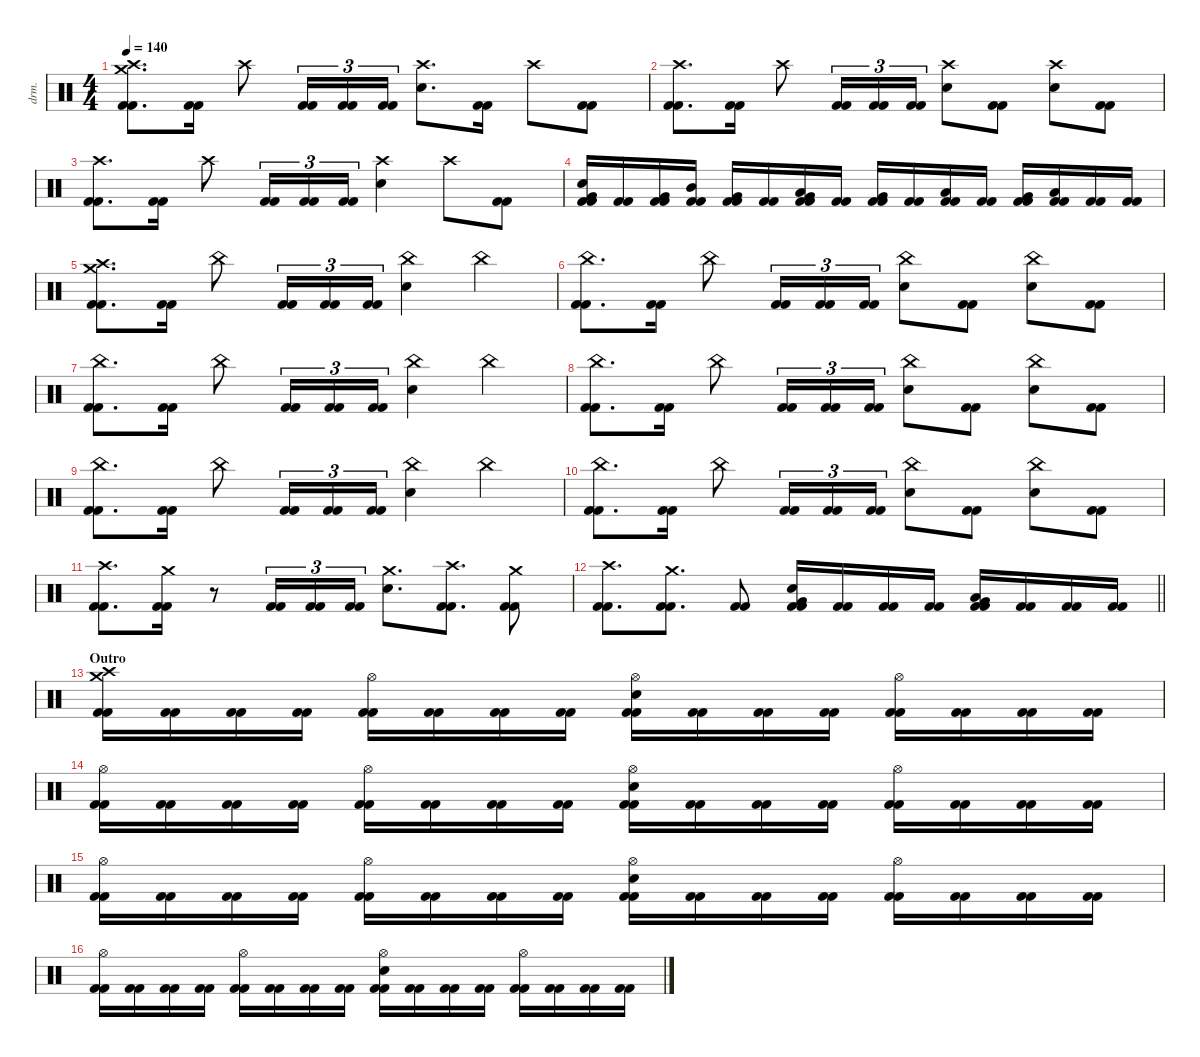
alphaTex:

\defaultSystemsLayout 4
\hideDynamics
\bracketExtendMode nobrackets
\otherSystemsTrackNameOrientation horizontal
\track ("Chris Adler" "drm.") {instrument percussion}
\staff {score}
\articulation defaults
\ts (4 4)
\tempo 140
\clef neutral
\ks c
("Crash medium (hit)" "Crash high (hit)" "Kick (hit) 2" "Kick (hit) 2").8{d dy f} ("Kick (hit) 2" "Kick (hit) 2").16 "Crash high (hit)".8 ("Kick (hit) 2" "Kick (hit) 2").16{tu (3 2)} ("Kick (hit) 2" "Kick (hit) 2").16{tu (3 2)} ("Kick (hit) 2" "Kick (hit) 2").16{tu (3 2)} ("Crash high (hit)" "Snare (hit) 2").8{d} ("Kick (hit) 2" "Kick (hit) 2").16 "Crash high (hit)".8 ("Kick (hit) 2" "Kick (hit) 2").8 |
("Crash high (hit)" "Kick (hit) 2" "Kick (hit) 2").8{d} ("Kick (hit) 2" "Kick (hit) 2").16 "Crash high (hit)".8 ("Kick (hit) 2" "Kick (hit) 2").16{tu (3 2)} ("Kick (hit) 2" "Kick (hit) 2").16{tu (3 2)} ("Kick (hit) 2" "Kick (hit) 2").16{tu (3 2)} ("Crash high (hit)" "Snare (hit) 2").8 ("Kick (hit) 2" "Kick (hit) 2").8 ("Crash high (hit)" "Snare (hit) 2").8 ("Kick (hit) 2" "Kick (hit) 2").8 |
("Crash high (hit)" "Kick (hit) 2" "Kick (hit) 2").8{d} ("Kick (hit) 2" "Kick (hit) 2").16 "Crash high (hit)".8 ("Kick (hit) 2" "Kick (hit) 2").16{tu (3 2)} ("Kick (hit) 2" "Kick (hit) 2").16{tu (3 2)} ("Kick (hit) 2" "Kick (hit) 2").16{tu (3 2)} ("Crash high (hit)" "Snare (hit) 2").4 "Crash high (hit)".8 ("Kick (hit) 2" "Kick (hit) 2").8 |
("Very Low Tom (hit)" "Snare (hit) 2" "Kick (hit) 2" "Kick (hit) 2").16 ("Kick (hit) 2" "Kick (hit) 2").16 ("Very Low Tom (hit)" "Kick (hit) 2" "Kick (hit) 2").16 ("Mid Tom (hit)" "Kick (hit) 2" "Kick (hit) 2").16 ("Very Low Tom (hit)" "Kick (hit) 2" "Kick (hit) 2").16 ("Kick (hit) 2" "Kick (hit) 2").16 ("Low Tom (hit)" "Very Low Tom (hit)" "Kick (hit) 2" "Kick (hit) 2").16 ("Kick (hit) 2" "Kick (hit) 2").16 ("Very Low Tom (hit)" "Kick (hit) 2" "Kick (hit) 2").16 ("Kick (hit) 2" "Kick (hit) 2").16 ("Low Floor Tom (hit)" "Kick (hit) 2" "Kick (hit) 2").16 ("Kick (hit) 2" "Kick (hit) 2").16 ("Very Low Tom (hit)" "Kick (hit) 2" "Kick (hit) 2").16 ("Low Floor Tom (hit)" "Kick (hit) 2" "Kick (hit) 2").16 ("Kick (hit) 2" "Kick (hit) 2").16 ("Kick (hit) 2" "Kick (hit) 2").16 |
("Crash medium (hit)" "Crash high (hit)" "Kick (hit) 2" "Kick (hit) 2").8{d} ("Kick (hit) 2" "Kick (hit) 2").16 "China (hit)".8 ("Kick (hit) 2" "Kick (hit) 2").16{tu (3 2)} ("Kick (hit) 2" "Kick (hit) 2").16{tu (3 2)} ("Kick (hit) 2" "Kick (hit) 2").16{tu (3 2)} ("China (hit)" "Snare (hit) 2").4 "China (hit)".4 |
("China (hit)" "Kick (hit) 2" "Kick (hit) 2").8{d} ("Kick (hit) 2" "Kick (hit) 2").16 "China (hit)".8 ("Kick (hit) 2" "Kick (hit) 2").16{tu (3 2)} ("Kick (hit) 2" "Kick (hit) 2").16{tu (3 2)} ("Kick (hit) 2" "Kick (hit) 2").16{tu (3 2)} ("China (hit)" "Snare (hit) 2").8 ("Kick (hit) 2" "Kick (hit) 2").8 ("China (hit)" "Snare (hit) 2").8 ("Kick (hit) 2" "Kick (hit) 2").8 |
("China (hit)" "Kick (hit) 2" "Kick (hit) 2").8{d} ("Kick (hit) 2" "Kick (hit) 2").16 "China (hit)".8 ("Kick (hit) 2" "Kick (hit) 2").16{tu (3 2)} ("Kick (hit) 2" "Kick (hit) 2").16{tu (3 2)} ("Kick (hit) 2" "Kick (hit) 2").16{tu (3 2)} ("China (hit)" "Snare (hit) 2").4 "China (hit)".4 |
("China (hit)" "Kick (hit) 2" "Kick (hit) 2").8{d} ("Kick (hit) 2" "Kick (hit) 2").16 "China (hit)".8 ("Kick (hit) 2" "Kick (hit) 2").16{tu (3 2)} ("Kick (hit) 2" "Kick (hit) 2").16{tu (3 2)} ("Kick (hit) 2" "Kick (hit) 2").16{tu (3 2)} ("China (hit)" "Snare (hit) 2").8 ("Kick (hit) 2" "Kick (hit) 2").8 ("China (hit)" "Snare (hit) 2").8 ("Kick (hit) 2" "Kick (hit) 2").8 |
("China (hit)" "Kick (hit) 2" "Kick (hit) 2").8{d} ("Kick (hit) 2" "Kick (hit) 2").16 "China (hit)".8 ("Kick (hit) 2" "Kick (hit) 2").16{tu (3 2)} ("Kick (hit) 2" "Kick (hit) 2").16{tu (3 2)} ("Kick (hit) 2" "Kick (hit) 2").16{tu (3 2)} ("China (hit)" "Snare (hit) 2").4 "China (hit)".4 |
("China (hit)" "Kick (hit) 2" "Kick (hit) 2").8{d} ("Kick (hit) 2" "Kick (hit) 2").16 "China (hit)".8 ("Kick (hit) 2" "Kick (hit) 2").16{tu (3 2)} ("Kick (hit) 2" "Kick (hit) 2").16{tu (3 2)} ("Kick (hit) 2" "Kick (hit) 2").16{tu (3 2)} ("China (hit)" "Snare (hit) 2").8 ("Kick (hit) 2" "Kick (hit) 2").8 ("China (hit)" "Snare (hit) 2").8 ("Kick (hit) 2" "Kick (hit) 2").8 |
("Crash high (hit)" "Kick (hit) 2" "Kick (hit) 2").8{d} ("Crash medium (hit)" "Kick (hit) 2" "Kick (hit) 2").16 r.8 ("Kick (hit) 2" "Kick (hit) 2").16{tu (3 2)} ("Kick (hit) 2" "Kick (hit) 2").16{tu (3 2)} ("Kick (hit) 2" "Kick (hit) 2").16{tu (3 2)} ("Crash medium (hit)" "Snare (hit) 2").8{d} ("Crash high (hit)" "Kick (hit) 2" "Kick (hit) 2").8{d} ("Crash medium (hit)" "Kick (hit) 2" "Kick (hit) 2").8 |
\barLineRight lightlight
("Crash high (hit)" "Kick (hit) 2" "Kick (hit) 2").8{d} ("Crash medium (hit)" "Kick (hit) 2" "Kick (hit) 2").8{d} ("Kick (hit) 2" "Kick (hit) 2").8 ("Very Low Tom (hit)" "Snare (hit) 2" "Kick (hit) 2" "Kick (hit) 2").16 ("Kick (hit) 2" "Kick (hit) 2").16 ("Kick (hit) 2" "Kick (hit) 2").16 ("Kick (hit) 2" "Kick (hit) 2").16 ("Low Tom (hit)" "Very Low Tom (hit)" "Kick (hit) 2" "Kick (hit) 2").16 ("Kick (hit) 2" "Kick (hit) 2").16 ("Kick (hit) 2" "Kick (hit) 2").16 ("Kick (hit) 2" "Kick (hit) 2").16 |
\section ("" "Outro")
("Crash medium (hit)" "Crash high (hit)" "Kick (hit) 2" "Kick (hit) 2").16 ("Kick (hit) 2" "Kick (hit) 2").16 ("Kick (hit) 2" "Kick (hit) 2").16 ("Kick (hit) 2" "Kick (hit) 2").16 ("Hi-Hat (open)" "Kick (hit) 2" "Kick (hit) 2").16 ("Kick (hit) 2" "Kick (hit) 2").16 ("Kick (hit) 2" "Kick (hit) 2").16 ("Kick (hit) 2" "Kick (hit) 2").16 ("Hi-Hat (open)" "Snare (hit) 2" "Kick (hit) 2" "Kick (hit) 2").16 ("Kick (hit) 2" "Kick (hit) 2").16 ("Kick (hit) 2" "Kick (hit) 2").16 ("Kick (hit) 2" "Kick (hit) 2").16 ("Hi-Hat (open)" "Kick (hit) 2" "Kick (hit) 2").16 ("Kick (hit) 2" "Kick (hit) 2").16 ("Kick (hit) 2" "Kick (hit) 2").16 ("Kick (hit) 2" "Kick (hit) 2").16 |
("Hi-Hat (open)" "Kick (hit) 2" "Kick (hit) 2").16 ("Kick (hit) 2" "Kick (hit) 2").16 ("Kick (hit) 2" "Kick (hit) 2").16 ("Kick (hit) 2" "Kick (hit) 2").16 ("Hi-Hat (open)" "Kick (hit) 2" "Kick (hit) 2").16 ("Kick (hit) 2" "Kick (hit) 2").16 ("Kick (hit) 2" "Kick (hit) 2").16 ("Kick (hit) 2" "Kick (hit) 2").16 ("Hi-Hat (open)" "Snare (hit) 2" "Kick (hit) 2" "Kick (hit) 2").16 ("Kick (hit) 2" "Kick (hit) 2").16 ("Kick (hit) 2" "Kick (hit) 2").16 ("Kick (hit) 2" "Kick (hit) 2").16 ("Hi-Hat (open)" "Kick (hit) 2" "Kick (hit) 2").16 ("Kick (hit) 2" "Kick (hit) 2").16 ("Kick (hit) 2" "Kick (hit) 2").16 ("Kick (hit) 2" "Kick (hit) 2").16 |
("Hi-Hat (open)" "Kick (hit) 2" "Kick (hit) 2").16 ("Kick (hit) 2" "Kick (hit) 2").16 ("Kick (hit) 2" "Kick (hit) 2").16 ("Kick (hit) 2" "Kick (hit) 2").16 ("Hi-Hat (open)" "Kick (hit) 2" "Kick (hit) 2").16 ("Kick (hit) 2" "Kick (hit) 2").16 ("Kick (hit) 2" "Kick (hit) 2").16 ("Kick (hit) 2" "Kick (hit) 2").16 ("Hi-Hat (open)" "Snare (hit) 2" "Kick (hit) 2" "Kick (hit) 2").16 ("Kick (hit) 2" "Kick (hit) 2").16 ("Kick (hit) 2" "Kick (hit) 2").16 ("Kick (hit) 2" "Kick (hit) 2").16 ("Hi-Hat (open)" "Kick (hit) 2" "Kick (hit) 2").16 ("Kick (hit) 2" "Kick (hit) 2").16 ("Kick (hit) 2" "Kick (hit) 2").16 ("Kick (hit) 2" "Kick (hit) 2").16 |
("Hi-Hat (open)" "Kick (hit) 2" "Kick (hit) 2").16 ("Kick (hit) 2" "Kick (hit) 2").16 ("Kick (hit) 2" "Kick (hit) 2").16 ("Kick (hit) 2" "Kick (hit) 2").16 ("Hi-Hat (open)" "Kick (hit) 2" "Kick (hit) 2").16 ("Kick (hit) 2" "Kick (hit) 2").16 ("Kick (hit) 2" "Kick (hit) 2").16 ("Kick (hit) 2" "Kick (hit) 2").16 ("Hi-Hat (open)" "Snare (hit) 2" "Kick (hit) 2" "Kick (hit) 2").16 ("Kick (hit) 2" "Kick (hit) 2").16 ("Kick (hit) 2" "Kick (hit) 2").16 ("Kick (hit) 2" "Kick (hit) 2").16 ("Hi-Hat (open)" "Kick (hit) 2" "Kick (hit) 2").16 ("Kick (hit) 2" "Kick (hit) 2").16 ("Kick (hit) 2" "Kick (hit) 2").16 ("Kick (hit) 2" "Kick (hit) 2").16
